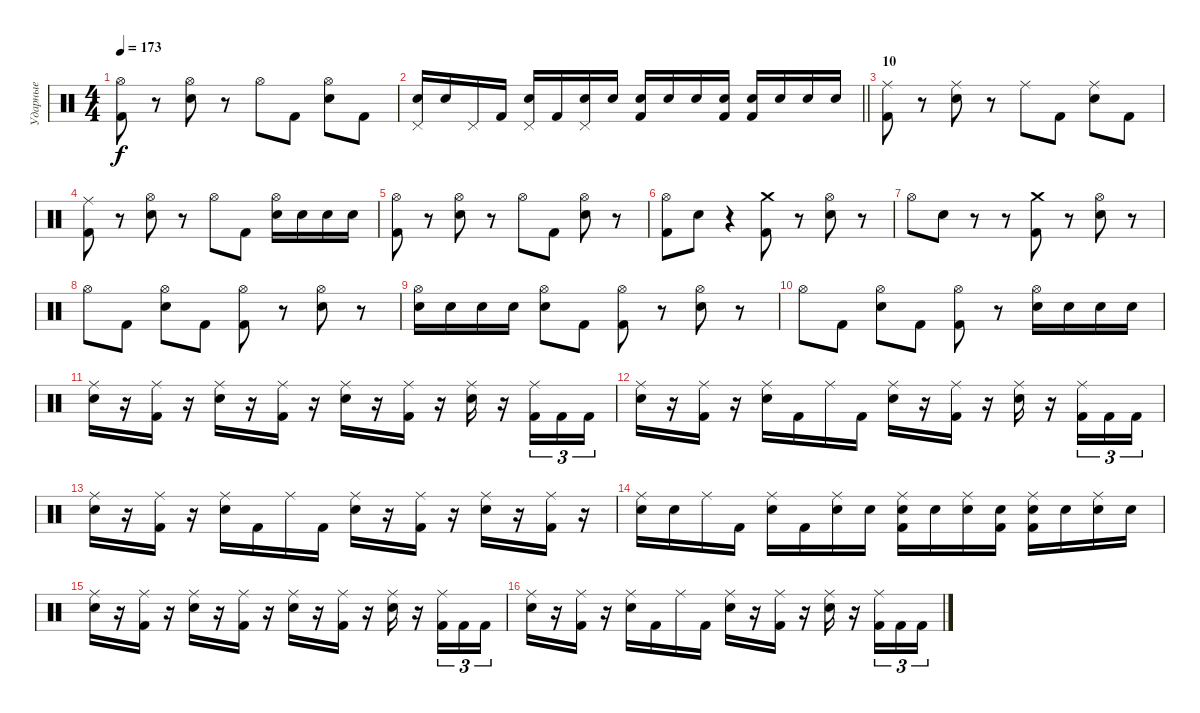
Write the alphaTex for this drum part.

\track ("Ударные" "Ударные") {instrument percussion}
\staff {score}
\articulation defaults
\ts (4 4)
\tempo 173
\clef neutral
\ks c
("Hi-Hat (open)" "Kick (hit) 2").8{dy f} r.8 ("Hi-Hat (open)" "Snare (hit) 2").8 r.8 "Hi-Hat (open)".8 "Kick (hit) 2".8 ("Hi-Hat (open)" "Snare (hit) 2").8 "Kick (hit) 2".8 |
\barLineRight lightlight
("Pedal Hi-Hat (hit)" "Snare (hit) 2").16 "Snare (hit) 2".16 "Pedal Hi-Hat (hit)".16 "Kick (hit) 2".16 ("Pedal Hi-Hat (hit)" "Snare (hit) 2").16 "Kick (hit) 2".16 ("Pedal Hi-Hat (hit)" "Snare (hit) 2").16 "Snare (hit) 2".16 ("Snare (hit) 2" "Kick (hit) 2").16 "Snare (hit) 2".16 "Snare (hit) 2".16 ("Snare (hit) 2" "Kick (hit) 2").16 ("Snare (hit) 2" "Kick (hit) 2").16 "Snare (hit) 2".16 "Snare (hit) 2".16 "Snare (hit) 2".16 |
\section ("" "10")
("Ride (middle)" "Kick (hit) 2").8 r.8 ("Ride (middle)" "Snare (hit) 2").8 r.8 "Ride (middle)".8 "Kick (hit) 2".8 ("Ride (middle)" "Snare (hit) 2").8 "Kick (hit) 2".8 |
("Ride (middle)" "Kick (hit) 2").8 r.8 ("Hi-Hat (open)" "Snare (hit) 2").8 r.8 "Hi-Hat (open)".8 "Kick (hit) 2".8 ("Hi-Hat (open)" "Snare (hit) 2").16 "Snare (hit) 2".16 "Snare (hit) 2".16 "Snare (hit) 2".16 |
("Hi-Hat (open)" "Kick (hit) 2").8 r.8 ("Hi-Hat (open)" "Snare (hit) 2").8 r.8 "Hi-Hat (open)".8 "Kick (hit) 2".8 ("Hi-Hat (open)" "Snare (hit) 2").8 r.8 |
("Hi-Hat (open)" "Kick (hit) 2").8 "Snare (hit) 2".8 r.4 ("Crash medium (hit)" "Kick (hit) 2").8 r.8 ("Hi-Hat (open)" "Snare (hit) 2").8 r.8 |
"Hi-Hat (open)".8 "Snare (hit) 2".8 r.8 r.8 ("Crash medium (hit)" "Kick (hit) 2").8 r.8 ("Hi-Hat (open)" "Snare (hit) 2").8 r.8 |
"Hi-Hat (open)".8 "Kick (hit) 2".8 ("Hi-Hat (open)" "Snare (hit) 2").8 "Kick (hit) 2".8 ("Hi-Hat (open)" "Kick (hit) 2").8 r.8 ("Hi-Hat (open)" "Snare (hit) 2").8 r.8 |
("Hi-Hat (open)" "Snare (hit) 2").16 "Snare (hit) 2".16 "Snare (hit) 2".16 "Snare (hit) 2".16 ("Hi-Hat (open)" "Snare (hit) 2").8 "Kick (hit) 2".8 ("Hi-Hat (open)" "Kick (hit) 2").8 r.8 ("Hi-Hat (open)" "Snare (hit) 2").8 r.8 |
"Hi-Hat (open)".8 "Kick (hit) 2".8 ("Hi-Hat (open)" "Snare (hit) 2").8 "Kick (hit) 2".8 ("Hi-Hat (open)" "Kick (hit) 2").8 r.8 ("Hi-Hat (open)" "Snare (hit) 2").16 "Snare (hit) 2".16 "Snare (hit) 2".16 "Snare (hit) 2".16 |
("Ride (middle)" "Snare (hit) 2").16 r.16 ("Ride (middle)" "Kick (hit) 2").16 r.16 ("Ride (middle)" "Snare (hit) 2").16 r.16 ("Ride (middle)" "Kick (hit) 2").16 r.16 ("Ride (middle)" "Snare (hit) 2").16 r.16 ("Ride (middle)" "Kick (hit) 2").16 r.16 ("Ride (middle)" "Snare (hit) 2").16 r.16 ("Ride (middle)" "Kick (hit) 2").16{tu (3 2)} "Kick (hit) 2".16{tu (3 2)} "Kick (hit) 2".16{tu (3 2)} |
("Ride (middle)" "Snare (hit) 2").16 r.16 ("Ride (middle)" "Kick (hit) 2").16 r.16 ("Ride (middle)" "Snare (hit) 2").16 "Kick (hit) 2".16 "Ride (middle)".16 "Kick (hit) 2".16 ("Ride (middle)" "Snare (hit) 2").16 r.16 ("Ride (middle)" "Kick (hit) 2").16 r.16 ("Ride (middle)" "Snare (hit) 2").16 r.16 ("Ride (middle)" "Kick (hit) 2").16{tu (3 2)} "Kick (hit) 2".16{tu (3 2)} "Kick (hit) 2".16{tu (3 2)} |
("Ride (middle)" "Snare (hit) 2").16 r.16 ("Ride (middle)" "Kick (hit) 2").16 r.16 ("Ride (middle)" "Snare (hit) 2").16 "Kick (hit) 2".16 "Ride (middle)".16 "Kick (hit) 2".16 ("Ride (middle)" "Snare (hit) 2").16 r.16 ("Ride (middle)" "Kick (hit) 2").16 r.16 ("Ride (middle)" "Snare (hit) 2").16 r.16 ("Ride (middle)" "Kick (hit) 2").16 r.16 |
("Ride (middle)" "Snare (hit) 2").16 "Snare (hit) 2".16 "Ride (middle)".16 "Kick (hit) 2".16 ("Ride (middle)" "Snare (hit) 2").16 "Kick (hit) 2".16 ("Ride (middle)" "Snare (hit) 2").16 "Snare (hit) 2".16 ("Ride (middle)" "Snare (hit) 2" "Kick (hit) 2").16 "Snare (hit) 2".16 ("Ride (middle)" "Snare (hit) 2").16 ("Snare (hit) 2" "Kick (hit) 2").16 ("Ride (middle)" "Snare (hit) 2" "Kick (hit) 2").16 "Snare (hit) 2".16 ("Ride (middle)" "Snare (hit) 2").16 "Snare (hit) 2".16 |
("Ride (middle)" "Snare (hit) 2").16 r.16 ("Ride (middle)" "Kick (hit) 2").16 r.16 ("Ride (middle)" "Snare (hit) 2").16 r.16 ("Ride (middle)" "Kick (hit) 2").16 r.16 ("Ride (middle)" "Snare (hit) 2").16 r.16 ("Ride (middle)" "Kick (hit) 2").16 r.16 ("Ride (middle)" "Snare (hit) 2").16 r.16 ("Ride (middle)" "Kick (hit) 2").16{tu (3 2)} "Kick (hit) 2".16{tu (3 2)} "Kick (hit) 2".16{tu (3 2)} |
("Ride (middle)" "Snare (hit) 2").16 r.16 ("Ride (middle)" "Kick (hit) 2").16 r.16 ("Ride (middle)" "Snare (hit) 2").16 "Kick (hit) 2".16 "Ride (middle)".16 "Kick (hit) 2".16 ("Ride (middle)" "Snare (hit) 2").16 r.16 ("Ride (middle)" "Kick (hit) 2").16 r.16 ("Ride (middle)" "Snare (hit) 2").16 r.16 ("Ride (middle)" "Kick (hit) 2").16{tu (3 2)} "Kick (hit) 2".16{tu (3 2)} "Kick (hit) 2".16{tu (3 2)}
